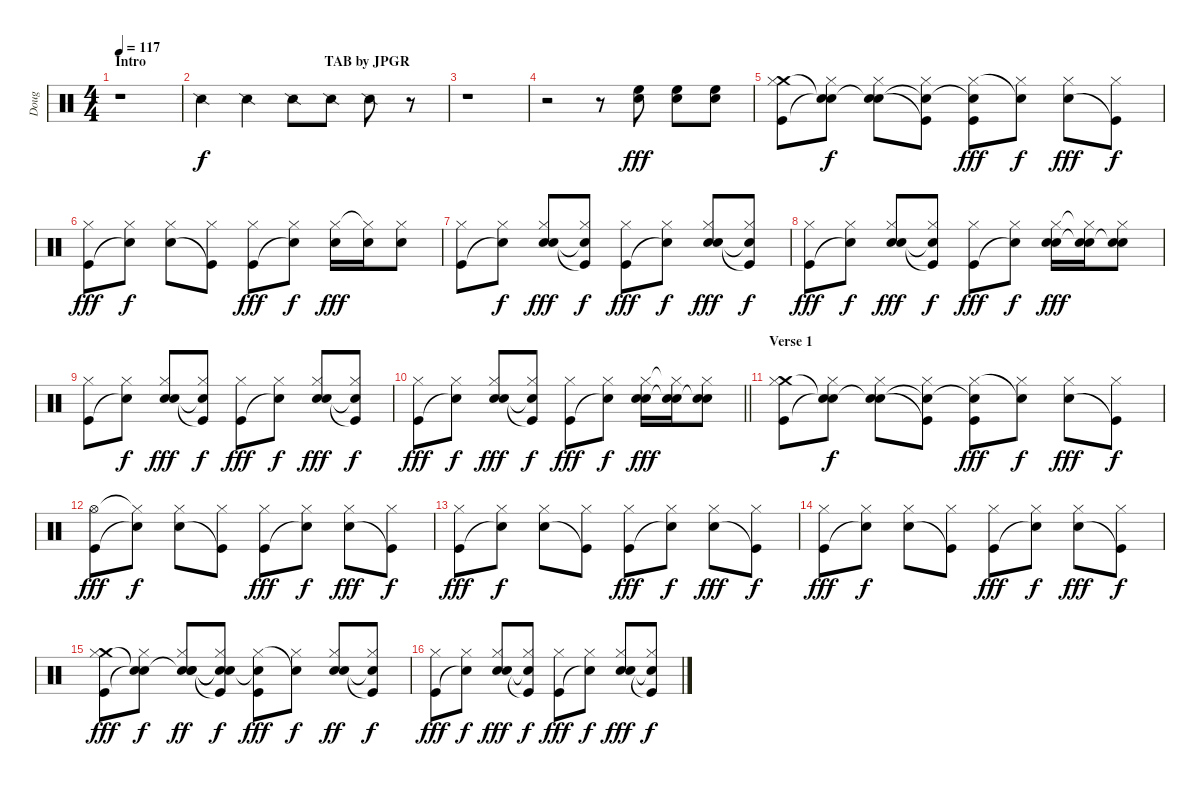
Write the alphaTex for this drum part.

\track ("Doug" "Doug") {instrument percussion}
\staff {score}
\articulation defaults
\ts (4 4)
\section ("" "Intro                                                   TAB by JPGR")
\tempo 117
\clef neutral
\ks c
r.1{dy f} |
"Snare (side stick) 2".4 "Snare (side stick) 2".4 "Snare (side stick) 2".8 "Snare (side stick) 2".8 "Snare (side stick) 2".8 r.8 |
r.1 |
r.2 r.8 ("High Floor Tom (hit)" "Snare (hit) 2").8{dy fff} ("High Floor Tom (hit)" "Snare (hit) 2").8 ("High Floor Tom (hit)" "Snare (hit) 2").8 |
("Crash medium (hit)" "Hi-Hat (closed)" "Kick (hit)").8 ("Snare (hit)"{t} "Hi-Hat (closed)" "Snare (hit)"{t}).8{dy f} ("Snare (hit)"{t} "Hi-Hat (closed)" "Snare (hit) 2").8 ("Snare (hit)"{t} "Hi-Hat (closed)" "Kick (hit)"{t}).8 ("Snare (hit)"{t} "Hi-Hat (closed)" "Kick (hit)").8{dy fff} ("Hi-Hat (closed)" "Snare (hit)"{t}).8{dy f} ("Hi-Hat (closed)" "Snare (hit) 2").8{dy fff} ("Hi-Hat (closed)" "Kick (hit)"{t}).8{dy f} |
("Hi-Hat (closed)" "Kick (hit)").8{dy fff} ("Hi-Hat (closed)" "Snare (hit)"{t}).8{dy f} ("Hi-Hat (closed)" "Snare (hit) 2").8 ("Hi-Hat (closed)" "Kick (hit)"{t}).8 ("Hi-Hat (closed)" "Kick (hit)").8{dy fff} ("Hi-Hat (closed)" "Snare (hit)"{t}).8{dy f} ("Hi-Hat (closed)" "Snare (hit) 2").16{dy fff} ("Hi-Hat (closed)"{t} "Snare (hit) 2").16 ("Hi-Hat (closed)" "Snare (hit) 2").8 |
("Hi-Hat (closed)" "Kick (hit)").8 ("Hi-Hat (closed)" "Snare (hit)"{t}).8{dy f} ("Hand Clap (hit)" "Hi-Hat (closed)" "Snare (hit) 2").8{dy fff} ("Snare (hit)"{t} "Hi-Hat (closed)" "Kick (hit)"{t}).8{dy f} ("Hi-Hat (closed)" "Kick (hit)").8{dy fff} ("Hi-Hat (closed)" "Snare (hit)"{t}).8{dy f} ("Hand Clap (hit)" "Hi-Hat (closed)" "Snare (hit) 2").8{dy fff} ("Snare (hit)"{t} "Hi-Hat (closed)" "Kick (hit)"{t}).8{dy f} |
("Hi-Hat (closed)" "Kick (hit)").8{dy fff} ("Hi-Hat (closed)" "Snare (hit)"{t}).8{dy f} ("Hand Clap (hit)" "Hi-Hat (closed)" "Snare (hit) 2").8{dy fff} ("Snare (hit)"{t} "Hi-Hat (closed)" "Kick (hit)"{t}).8{dy f} ("Hi-Hat (closed)" "Kick (hit)").8{dy fff} ("Hi-Hat (closed)" "Snare (hit)"{t}).8{dy f} ("Hand Clap (hit)" "Hi-Hat (closed)" "Snare (hit) 2").16{dy fff} ("Snare (hit)"{t} "Hi-Hat (closed)"{t} "Snare (hit) 2").16 ("Snare (hit)"{t} "Hi-Hat (closed)" "Snare (hit) 2").8 |
("Hi-Hat (closed)" "Kick (hit)").8 ("Hi-Hat (closed)" "Snare (hit)"{t}).8{dy f} ("Hand Clap (hit)" "Hi-Hat (closed)" "Snare (hit) 2").8{dy fff} ("Snare (hit)"{t} "Hi-Hat (closed)" "Kick (hit)"{t}).8{dy f} ("Hi-Hat (closed)" "Kick (hit)").8{dy fff} ("Hi-Hat (closed)" "Snare (hit)"{t}).8{dy f} ("Hand Clap (hit)" "Hi-Hat (closed)" "Snare (hit) 2").8{dy fff} ("Snare (hit)"{t} "Hi-Hat (closed)" "Kick (hit)"{t}).8{dy f} |
\barLineRight lightlight
("Hi-Hat (closed)" "Kick (hit)").8{dy fff} ("Hi-Hat (closed)" "Snare (hit)"{t}).8{dy f} ("Hand Clap (hit)" "Hi-Hat (closed)" "Snare (hit) 2").8{dy fff} ("Snare (hit)"{t} "Hi-Hat (closed)" "Kick (hit)"{t}).8{dy f} ("Hi-Hat (closed)" "Kick (hit)").8{dy fff} ("Hi-Hat (closed)" "Snare (hit)"{t}).8{dy f} ("Hand Clap (hit)" "Hi-Hat (closed)" "Snare (hit) 2").16{dy fff} ("Snare (hit)"{t} "Hi-Hat (closed)"{t} "Snare (hit) 2").16 ("Snare (hit)"{t} "Hi-Hat (closed)" "Snare (hit) 2").8 |
\section ("" "Verse 1")
("Crash medium (hit)" "Hi-Hat (closed)" "Kick (hit)").8 ("Snare (hit)"{t} "Hi-Hat (closed)" "Snare (hit)"{t}).8{dy f} ("Snare (hit)"{t} "Hi-Hat (closed)" "Snare (hit) 2").8 ("Snare (hit)"{t} "Hi-Hat (closed)" "Kick (hit)"{t}).8 ("Snare (hit)"{t} "Hi-Hat (closed)" "Kick (hit)").8{dy fff} ("Hi-Hat (closed)" "Snare (hit)"{t}).8{dy f} ("Hi-Hat (closed)" "Snare (hit) 2").8{dy fff} ("Hi-Hat (closed)" "Kick (hit)"{t}).8{dy f} |
("Hi-Hat (open)" "Kick (hit)").8{dy fff} ("Hi-Hat (closed)"{t} "Snare (hit)"{t}).8{dy f} ("Hi-Hat (closed)" "Snare (hit) 2").8 ("Hi-Hat (closed)" "Kick (hit)"{t}).8 ("Hi-Hat (closed)" "Kick (hit)").8{dy fff} ("Hi-Hat (closed)" "Snare (hit)"{t}).8{dy f} ("Hi-Hat (closed)" "Snare (hit) 2").8{dy fff} ("Hi-Hat (closed)" "Kick (hit)"{t}).8{dy f} |
("Hi-Hat (closed)" "Kick (hit)").8{dy fff} ("Hi-Hat (closed)" "Snare (hit)"{t}).8{dy f} ("Hi-Hat (closed)" "Snare (hit) 2").8 ("Hi-Hat (closed)" "Kick (hit)"{t}).8 ("Hi-Hat (closed)" "Kick (hit)").8{dy fff} ("Hi-Hat (closed)" "Snare (hit)"{t}).8{dy f} ("Hi-Hat (closed)" "Snare (hit) 2").8{dy fff} ("Hi-Hat (closed)" "Kick (hit)"{t}).8{dy f} |
("Hi-Hat (closed)" "Kick (hit)").8{dy fff} ("Hi-Hat (closed)" "Snare (hit)"{t}).8{dy f} ("Hi-Hat (closed)" "Snare (hit) 2").8 ("Hi-Hat (closed)" "Kick (hit)"{t}).8 ("Hi-Hat (closed)" "Kick (hit)").8{dy fff} ("Hi-Hat (closed)" "Snare (hit)"{t}).8{dy f} ("Hi-Hat (closed)" "Snare (hit) 2").8{dy fff} ("Hi-Hat (closed)" "Kick (hit)"{t}).8{dy f} |
("Crash medium (hit)" "Hi-Hat (closed)" "Kick (hit)").8{dy fff} ("Snare (hit)"{t} "Hi-Hat (closed)" "Snare (hit)"{t}).8{dy f} ("Hand Clap (hit)"{t} "Hi-Hat (closed)" "Snare (hit) 2" "Hand Clap (hit)").8{dy ff} ("Snare (hit)"{t} "Hi-Hat (closed)" "Kick (hit)"{t} "Snare (hit)"{t}).8{dy f} ("Snare (hit)"{t} "Hi-Hat (closed)" "Kick (hit)").8{dy fff} ("Hi-Hat (closed)" "Snare (hit)"{t}).8{dy f} ("Hi-Hat (closed)" "Snare (hit) 2" "Hand Clap (hit)").8{dy ff} ("Hi-Hat (closed)" "Kick (hit)"{t} "Snare (hit)"{t}).8{dy f} |
("Hi-Hat (closed)" "Kick (hit)").8{dy fff} ("Hi-Hat (closed)" "Snare (hit)"{t}).8{dy f} ("Hand Clap (hit)" "Hi-Hat (closed)" "Snare (hit) 2").8{dy fff} ("Snare (hit)"{t} "Hi-Hat (closed)" "Kick (hit)"{t}).8{dy f} ("Hi-Hat (closed)" "Kick (hit)").8{dy fff} ("Hi-Hat (closed)" "Snare (hit)"{t}).8{dy f} ("Hand Clap (hit)" "Hi-Hat (closed)" "Snare (hit) 2").8{dy fff} ("Snare (hit)"{t} "Hi-Hat (closed)" "Kick (hit)"{t}).8{dy f}
